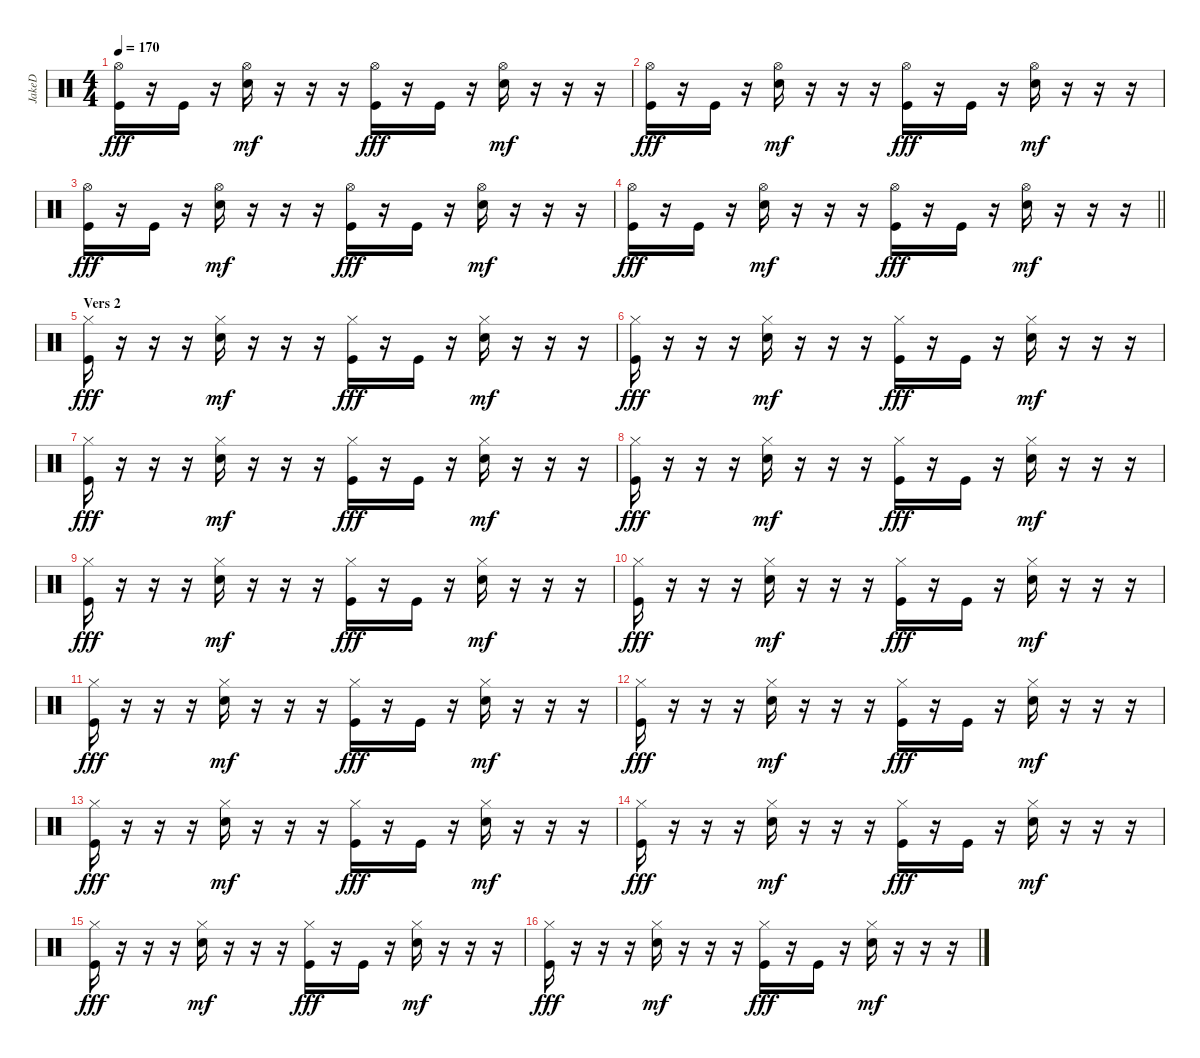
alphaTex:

\track ("JakeD" "JakeD") {instrument percussion}
\staff {score}
\articulation defaults
\ts (4 4)
\tempo 170
\clef neutral
\ks c
("Hi-Hat (open)" "Kick (hit)").16{dy fff} r.16 "Kick (hit)".16 r.16 ("Hi-Hat (open)" "Electric Snare (hit)").16{dy mf} r.16 r.16 r.16 ("Hi-Hat (open)" "Kick (hit)").16{dy fff} r.16 "Kick (hit)".16 r.16 ("Hi-Hat (open)" "Electric Snare (hit)").16{dy mf} r.16 r.16 r.16 |
("Hi-Hat (open)" "Kick (hit)").16{dy fff} r.16 "Kick (hit)".16 r.16 ("Hi-Hat (open)" "Electric Snare (hit)").16{dy mf} r.16 r.16 r.16 ("Hi-Hat (open)" "Kick (hit)").16{dy fff} r.16 "Kick (hit)".16 r.16 ("Hi-Hat (open)" "Electric Snare (hit)").16{dy mf} r.16 r.16 r.16 |
("Hi-Hat (open)" "Kick (hit)").16{dy fff} r.16 "Kick (hit)".16 r.16 ("Hi-Hat (open)" "Electric Snare (hit)").16{dy mf} r.16 r.16 r.16 ("Hi-Hat (open)" "Kick (hit)").16{dy fff} r.16 "Kick (hit)".16 r.16 ("Hi-Hat (open)" "Electric Snare (hit)").16{dy mf} r.16 r.16 r.16 |
\barLineRight lightlight
("Hi-Hat (open)" "Kick (hit)").16{dy fff} r.16 "Kick (hit)".16 r.16 ("Hi-Hat (open)" "Electric Snare (hit)").16{dy mf} r.16 r.16 r.16 ("Hi-Hat (open)" "Kick (hit)").16{dy fff} r.16 "Kick (hit)".16 r.16 ("Hi-Hat (open)" "Electric Snare (hit)").16{dy mf} r.16 r.16 r.16 |
\section ("" "Vers 2")
("Hi-Hat (closed)" "Kick (hit)").16{dy fff} r.16 r.16 r.16 ("Hi-Hat (closed)" "Electric Snare (hit)").16{dy mf} r.16 r.16 r.16 ("Hi-Hat (closed)" "Kick (hit)").16{dy fff} r.16 "Kick (hit)".16 r.16 ("Hi-Hat (closed)" "Electric Snare (hit)").16{dy mf} r.16 r.16 r.16 |
("Hi-Hat (closed)" "Kick (hit)").16{dy fff} r.16 r.16 r.16 ("Hi-Hat (closed)" "Electric Snare (hit)").16{dy mf} r.16 r.16 r.16 ("Hi-Hat (closed)" "Kick (hit)").16{dy fff} r.16 "Kick (hit)".16 r.16 ("Hi-Hat (closed)" "Electric Snare (hit)").16{dy mf} r.16 r.16 r.16 |
("Hi-Hat (closed)" "Kick (hit)").16{dy fff} r.16 r.16 r.16 ("Hi-Hat (closed)" "Electric Snare (hit)").16{dy mf} r.16 r.16 r.16 ("Hi-Hat (closed)" "Kick (hit)").16{dy fff} r.16 "Kick (hit)".16 r.16 ("Hi-Hat (closed)" "Electric Snare (hit)").16{dy mf} r.16 r.16 r.16 |
("Hi-Hat (closed)" "Kick (hit)").16{dy fff} r.16 r.16 r.16 ("Hi-Hat (closed)" "Electric Snare (hit)").16{dy mf} r.16 r.16 r.16 ("Hi-Hat (closed)" "Kick (hit)").16{dy fff} r.16 "Kick (hit)".16 r.16 ("Hi-Hat (closed)" "Electric Snare (hit)").16{dy mf} r.16 r.16 r.16 |
("Hi-Hat (closed)" "Kick (hit)").16{dy fff} r.16 r.16 r.16 ("Hi-Hat (closed)" "Electric Snare (hit)").16{dy mf} r.16 r.16 r.16 ("Hi-Hat (closed)" "Kick (hit)").16{dy fff} r.16 "Kick (hit)".16 r.16 ("Hi-Hat (closed)" "Electric Snare (hit)").16{dy mf} r.16 r.16 r.16 |
("Hi-Hat (closed)" "Kick (hit)").16{dy fff} r.16 r.16 r.16 ("Hi-Hat (closed)" "Electric Snare (hit)").16{dy mf} r.16 r.16 r.16 ("Hi-Hat (closed)" "Kick (hit)").16{dy fff} r.16 "Kick (hit)".16 r.16 ("Hi-Hat (closed)" "Electric Snare (hit)").16{dy mf} r.16 r.16 r.16 |
("Hi-Hat (closed)" "Kick (hit)").16{dy fff} r.16 r.16 r.16 ("Hi-Hat (closed)" "Electric Snare (hit)").16{dy mf} r.16 r.16 r.16 ("Hi-Hat (closed)" "Kick (hit)").16{dy fff} r.16 "Kick (hit)".16 r.16 ("Hi-Hat (closed)" "Electric Snare (hit)").16{dy mf} r.16 r.16 r.16 |
("Hi-Hat (closed)" "Kick (hit)").16{dy fff} r.16 r.16 r.16 ("Hi-Hat (closed)" "Electric Snare (hit)").16{dy mf} r.16 r.16 r.16 ("Hi-Hat (closed)" "Kick (hit)").16{dy fff} r.16 "Kick (hit)".16 r.16 ("Hi-Hat (closed)" "Electric Snare (hit)").16{dy mf} r.16 r.16 r.16 |
("Hi-Hat (closed)" "Kick (hit)").16{dy fff} r.16 r.16 r.16 ("Hi-Hat (closed)" "Electric Snare (hit)").16{dy mf} r.16 r.16 r.16 ("Hi-Hat (closed)" "Kick (hit)").16{dy fff} r.16 "Kick (hit)".16 r.16 ("Hi-Hat (closed)" "Electric Snare (hit)").16{dy mf} r.16 r.16 r.16 |
("Hi-Hat (closed)" "Kick (hit)").16{dy fff} r.16 r.16 r.16 ("Hi-Hat (closed)" "Electric Snare (hit)").16{dy mf} r.16 r.16 r.16 ("Hi-Hat (closed)" "Kick (hit)").16{dy fff} r.16 "Kick (hit)".16 r.16 ("Hi-Hat (closed)" "Electric Snare (hit)").16{dy mf} r.16 r.16 r.16 |
("Hi-Hat (closed)" "Kick (hit)").16{dy fff} r.16 r.16 r.16 ("Hi-Hat (closed)" "Electric Snare (hit)").16{dy mf} r.16 r.16 r.16 ("Hi-Hat (closed)" "Kick (hit)").16{dy fff} r.16 "Kick (hit)".16 r.16 ("Hi-Hat (closed)" "Electric Snare (hit)").16{dy mf} r.16 r.16 r.16 |
("Hi-Hat (closed)" "Kick (hit)").16{dy fff} r.16 r.16 r.16 ("Hi-Hat (closed)" "Electric Snare (hit)").16{dy mf} r.16 r.16 r.16 ("Hi-Hat (closed)" "Kick (hit)").16{dy fff} r.16 "Kick (hit)".16 r.16 ("Hi-Hat (closed)" "Electric Snare (hit)").16{dy mf} r.16 r.16 r.16
